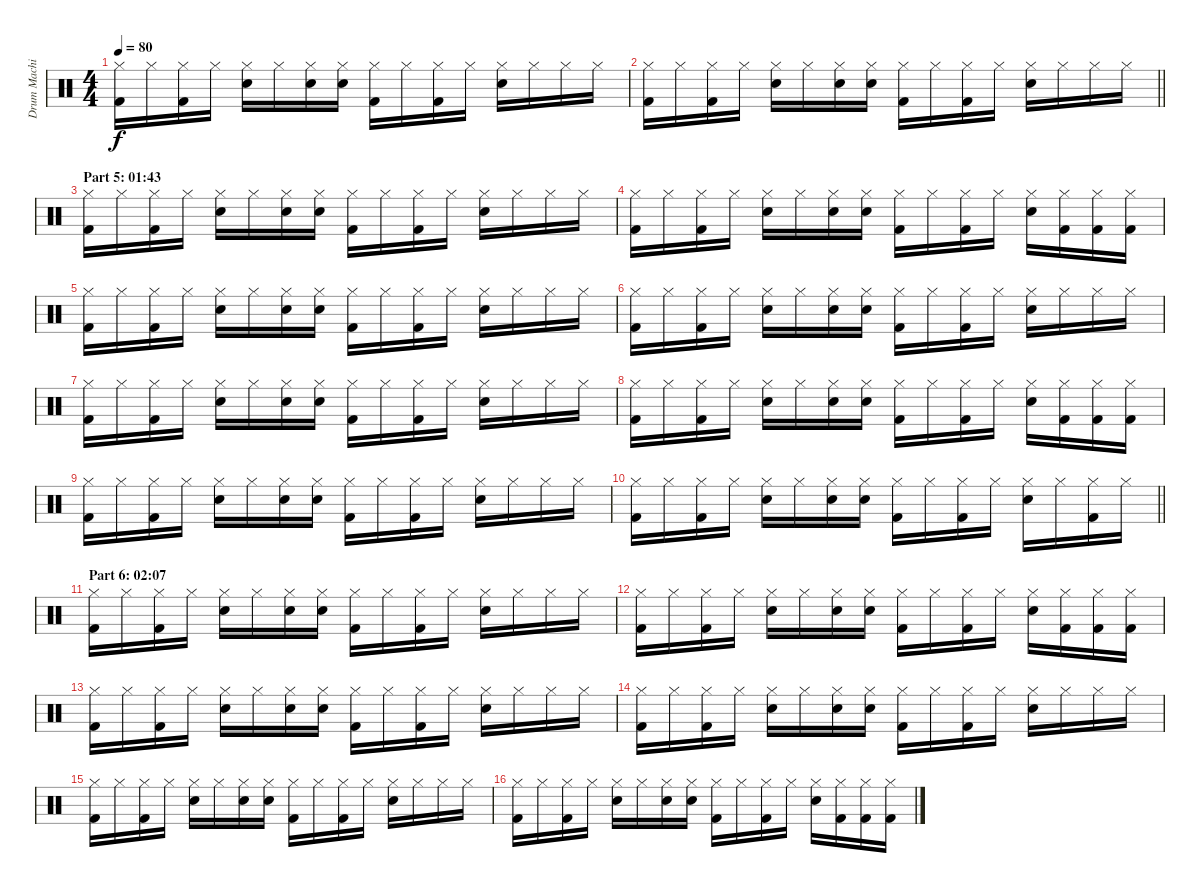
\track ("Drum Machine" "Drum Machi") {instrument percussion}
\staff {score}
\articulation defaults
\ts (4 4)
\tempo 80
\clef neutral
\ks c
("Hi-Hat (closed)" "Kick (hit) 2").16{dy f} "Hi-Hat (closed)".16 ("Hi-Hat (closed)" "Kick (hit) 2").16 "Hi-Hat (closed)".16 ("Hi-Hat (closed)" "Electric Snare (hit)").16 "Hi-Hat (closed)".16 ("Hi-Hat (closed)" "Electric Snare (hit)").16 ("Hi-Hat (closed)" "Electric Snare (hit)").16 ("Hi-Hat (closed)" "Kick (hit) 2").16 "Hi-Hat (closed)".16 ("Hi-Hat (closed)" "Kick (hit) 2").16 "Hi-Hat (closed)".16 ("Hi-Hat (closed)" "Electric Snare (hit)").16 "Hi-Hat (closed)".16 "Hi-Hat (closed)".16 "Hi-Hat (closed)".16 |
\barLineRight lightlight
("Hi-Hat (closed)" "Kick (hit) 2").16 "Hi-Hat (closed)".16 ("Hi-Hat (closed)" "Kick (hit) 2").16 "Hi-Hat (closed)".16 ("Hi-Hat (closed)" "Electric Snare (hit)").16 "Hi-Hat (closed)".16 ("Hi-Hat (closed)" "Electric Snare (hit)").16 ("Hi-Hat (closed)" "Electric Snare (hit)").16 ("Hi-Hat (closed)" "Kick (hit) 2").16 "Hi-Hat (closed)".16 ("Hi-Hat (closed)" "Kick (hit) 2").16 "Hi-Hat (closed)".16 ("Hi-Hat (closed)" "Electric Snare (hit)").16 "Hi-Hat (closed)".16 "Hi-Hat (closed)".16 "Hi-Hat (closed)".16 |
\section ("" "Part 5: 01:43")
("Hi-Hat (closed)" "Kick (hit) 2").16 "Hi-Hat (closed)".16 ("Hi-Hat (closed)" "Kick (hit) 2").16 "Hi-Hat (closed)".16 ("Hi-Hat (closed)" "Electric Snare (hit)").16 "Hi-Hat (closed)".16 ("Hi-Hat (closed)" "Electric Snare (hit)").16 ("Hi-Hat (closed)" "Electric Snare (hit)").16 ("Hi-Hat (closed)" "Kick (hit) 2").16 "Hi-Hat (closed)".16 ("Hi-Hat (closed)" "Kick (hit) 2").16 "Hi-Hat (closed)".16 ("Hi-Hat (closed)" "Electric Snare (hit)").16 "Hi-Hat (closed)".16 "Hi-Hat (closed)".16 "Hi-Hat (closed)".16 |
("Hi-Hat (closed)" "Kick (hit) 2").16 "Hi-Hat (closed)".16 ("Hi-Hat (closed)" "Kick (hit) 2").16 "Hi-Hat (closed)".16 ("Hi-Hat (closed)" "Electric Snare (hit)").16 "Hi-Hat (closed)".16 ("Hi-Hat (closed)" "Electric Snare (hit)").16 ("Hi-Hat (closed)" "Electric Snare (hit)").16 ("Hi-Hat (closed)" "Kick (hit) 2").16 "Hi-Hat (closed)".16 ("Hi-Hat (closed)" "Kick (hit) 2").16 "Hi-Hat (closed)".16 ("Hi-Hat (closed)" "Electric Snare (hit)").16 ("Hi-Hat (closed)" "Kick (hit) 2").16 ("Hi-Hat (closed)" "Kick (hit) 2").16 ("Hi-Hat (closed)" "Kick (hit) 2").16 |
("Hi-Hat (closed)" "Kick (hit) 2").16 "Hi-Hat (closed)".16 ("Hi-Hat (closed)" "Kick (hit) 2").16 "Hi-Hat (closed)".16 ("Hi-Hat (closed)" "Electric Snare (hit)").16 "Hi-Hat (closed)".16 ("Hi-Hat (closed)" "Electric Snare (hit)").16 ("Hi-Hat (closed)" "Electric Snare (hit)").16 ("Hi-Hat (closed)" "Kick (hit) 2").16 "Hi-Hat (closed)".16 ("Hi-Hat (closed)" "Kick (hit) 2").16 "Hi-Hat (closed)".16 ("Hi-Hat (closed)" "Electric Snare (hit)").16 "Hi-Hat (closed)".16 "Hi-Hat (closed)".16 "Hi-Hat (closed)".16 |
("Hi-Hat (closed)" "Kick (hit) 2").16 "Hi-Hat (closed)".16 ("Hi-Hat (closed)" "Kick (hit) 2").16 "Hi-Hat (closed)".16 ("Hi-Hat (closed)" "Electric Snare (hit)").16 "Hi-Hat (closed)".16 ("Hi-Hat (closed)" "Electric Snare (hit)").16 ("Hi-Hat (closed)" "Electric Snare (hit)").16 ("Hi-Hat (closed)" "Kick (hit) 2").16 "Hi-Hat (closed)".16 ("Hi-Hat (closed)" "Kick (hit) 2").16 "Hi-Hat (closed)".16 ("Hi-Hat (closed)" "Electric Snare (hit)").16 "Hi-Hat (closed)".16 "Hi-Hat (closed)".16 "Hi-Hat (closed)".16 |
("Hi-Hat (closed)" "Kick (hit) 2").16 "Hi-Hat (closed)".16 ("Hi-Hat (closed)" "Kick (hit) 2").16 "Hi-Hat (closed)".16 ("Hi-Hat (closed)" "Electric Snare (hit)").16 "Hi-Hat (closed)".16 ("Hi-Hat (closed)" "Electric Snare (hit)").16 ("Hi-Hat (closed)" "Electric Snare (hit)").16 ("Hi-Hat (closed)" "Kick (hit) 2").16 "Hi-Hat (closed)".16 ("Hi-Hat (closed)" "Kick (hit) 2").16 "Hi-Hat (closed)".16 ("Hi-Hat (closed)" "Electric Snare (hit)").16 "Hi-Hat (closed)".16 "Hi-Hat (closed)".16 "Hi-Hat (closed)".16 |
("Hi-Hat (closed)" "Kick (hit) 2").16 "Hi-Hat (closed)".16 ("Hi-Hat (closed)" "Kick (hit) 2").16 "Hi-Hat (closed)".16 ("Hi-Hat (closed)" "Electric Snare (hit)").16 "Hi-Hat (closed)".16 ("Hi-Hat (closed)" "Electric Snare (hit)").16 ("Hi-Hat (closed)" "Electric Snare (hit)").16 ("Hi-Hat (closed)" "Kick (hit) 2").16 "Hi-Hat (closed)".16 ("Hi-Hat (closed)" "Kick (hit) 2").16 "Hi-Hat (closed)".16 ("Hi-Hat (closed)" "Electric Snare (hit)").16 ("Hi-Hat (closed)" "Kick (hit) 2").16 ("Hi-Hat (closed)" "Kick (hit) 2").16 ("Hi-Hat (closed)" "Kick (hit) 2").16 |
("Hi-Hat (closed)" "Kick (hit) 2").16 "Hi-Hat (closed)".16 ("Hi-Hat (closed)" "Kick (hit) 2").16 "Hi-Hat (closed)".16 ("Hi-Hat (closed)" "Electric Snare (hit)").16 "Hi-Hat (closed)".16 ("Hi-Hat (closed)" "Electric Snare (hit)").16 ("Hi-Hat (closed)" "Electric Snare (hit)").16 ("Hi-Hat (closed)" "Kick (hit) 2").16 "Hi-Hat (closed)".16 ("Hi-Hat (closed)" "Kick (hit) 2").16 "Hi-Hat (closed)".16 ("Hi-Hat (closed)" "Electric Snare (hit)").16 "Hi-Hat (closed)".16 "Hi-Hat (closed)".16 "Hi-Hat (closed)".16 |
\barLineRight lightlight
("Hi-Hat (closed)" "Kick (hit) 2").16 "Hi-Hat (closed)".16 ("Hi-Hat (closed)" "Kick (hit) 2").16 "Hi-Hat (closed)".16 ("Hi-Hat (closed)" "Electric Snare (hit)").16 "Hi-Hat (closed)".16 ("Hi-Hat (closed)" "Electric Snare (hit)").16 ("Hi-Hat (closed)" "Electric Snare (hit)").16 ("Hi-Hat (closed)" "Kick (hit) 2").16 "Hi-Hat (closed)".16 ("Hi-Hat (closed)" "Kick (hit) 2").16 "Hi-Hat (closed)".16 ("Hi-Hat (closed)" "Electric Snare (hit)").16 "Hi-Hat (closed)".16 ("Hi-Hat (closed)" "Kick (hit) 2").16 "Hi-Hat (closed)".16 |
\section ("" "Part 6: 02:07")
("Hi-Hat (closed)" "Kick (hit) 2").16 "Hi-Hat (closed)".16 ("Hi-Hat (closed)" "Kick (hit) 2").16 "Hi-Hat (closed)".16 ("Hi-Hat (closed)" "Electric Snare (hit)").16 "Hi-Hat (closed)".16 ("Hi-Hat (closed)" "Electric Snare (hit)").16 ("Hi-Hat (closed)" "Electric Snare (hit)").16 ("Hi-Hat (closed)" "Kick (hit) 2").16 "Hi-Hat (closed)".16 ("Hi-Hat (closed)" "Kick (hit) 2").16 "Hi-Hat (closed)".16 ("Hi-Hat (closed)" "Electric Snare (hit)").16 "Hi-Hat (closed)".16 "Hi-Hat (closed)".16 "Hi-Hat (closed)".16 |
("Hi-Hat (closed)" "Kick (hit) 2").16 "Hi-Hat (closed)".16 ("Hi-Hat (closed)" "Kick (hit) 2").16 "Hi-Hat (closed)".16 ("Hi-Hat (closed)" "Electric Snare (hit)").16 "Hi-Hat (closed)".16 ("Hi-Hat (closed)" "Electric Snare (hit)").16 ("Hi-Hat (closed)" "Electric Snare (hit)").16 ("Hi-Hat (closed)" "Kick (hit) 2").16 "Hi-Hat (closed)".16 ("Hi-Hat (closed)" "Kick (hit) 2").16 "Hi-Hat (closed)".16 ("Hi-Hat (closed)" "Electric Snare (hit)").16 ("Hi-Hat (closed)" "Kick (hit) 2").16 ("Hi-Hat (closed)" "Kick (hit) 2").16 ("Hi-Hat (closed)" "Kick (hit) 2").16 |
("Hi-Hat (closed)" "Kick (hit) 2").16 "Hi-Hat (closed)".16 ("Hi-Hat (closed)" "Kick (hit) 2").16 "Hi-Hat (closed)".16 ("Hi-Hat (closed)" "Electric Snare (hit)").16 "Hi-Hat (closed)".16 ("Hi-Hat (closed)" "Electric Snare (hit)").16 ("Hi-Hat (closed)" "Electric Snare (hit)").16 ("Hi-Hat (closed)" "Kick (hit) 2").16 "Hi-Hat (closed)".16 ("Hi-Hat (closed)" "Kick (hit) 2").16 "Hi-Hat (closed)".16 ("Hi-Hat (closed)" "Electric Snare (hit)").16 "Hi-Hat (closed)".16 "Hi-Hat (closed)".16 "Hi-Hat (closed)".16 |
("Hi-Hat (closed)" "Kick (hit) 2").16 "Hi-Hat (closed)".16 ("Hi-Hat (closed)" "Kick (hit) 2").16 "Hi-Hat (closed)".16 ("Hi-Hat (closed)" "Electric Snare (hit)").16 "Hi-Hat (closed)".16 ("Hi-Hat (closed)" "Electric Snare (hit)").16 ("Hi-Hat (closed)" "Electric Snare (hit)").16 ("Hi-Hat (closed)" "Kick (hit) 2").16 "Hi-Hat (closed)".16 ("Hi-Hat (closed)" "Kick (hit) 2").16 "Hi-Hat (closed)".16 ("Hi-Hat (closed)" "Electric Snare (hit)").16 "Hi-Hat (closed)".16 "Hi-Hat (closed)".16 "Hi-Hat (closed)".16 |
("Hi-Hat (closed)" "Kick (hit) 2").16 "Hi-Hat (closed)".16 ("Hi-Hat (closed)" "Kick (hit) 2").16 "Hi-Hat (closed)".16 ("Hi-Hat (closed)" "Electric Snare (hit)").16 "Hi-Hat (closed)".16 ("Hi-Hat (closed)" "Electric Snare (hit)").16 ("Hi-Hat (closed)" "Electric Snare (hit)").16 ("Hi-Hat (closed)" "Kick (hit) 2").16 "Hi-Hat (closed)".16 ("Hi-Hat (closed)" "Kick (hit) 2").16 "Hi-Hat (closed)".16 ("Hi-Hat (closed)" "Electric Snare (hit)").16 "Hi-Hat (closed)".16 "Hi-Hat (closed)".16 "Hi-Hat (closed)".16 |
("Hi-Hat (closed)" "Kick (hit) 2").16 "Hi-Hat (closed)".16 ("Hi-Hat (closed)" "Kick (hit) 2").16 "Hi-Hat (closed)".16 ("Hi-Hat (closed)" "Electric Snare (hit)").16 "Hi-Hat (closed)".16 ("Hi-Hat (closed)" "Electric Snare (hit)").16 ("Hi-Hat (closed)" "Electric Snare (hit)").16 ("Hi-Hat (closed)" "Kick (hit) 2").16 "Hi-Hat (closed)".16 ("Hi-Hat (closed)" "Kick (hit) 2").16 "Hi-Hat (closed)".16 ("Hi-Hat (closed)" "Electric Snare (hit)").16 ("Hi-Hat (closed)" "Kick (hit) 2").16 ("Hi-Hat (closed)" "Kick (hit) 2").16 ("Hi-Hat (closed)" "Kick (hit) 2").16
